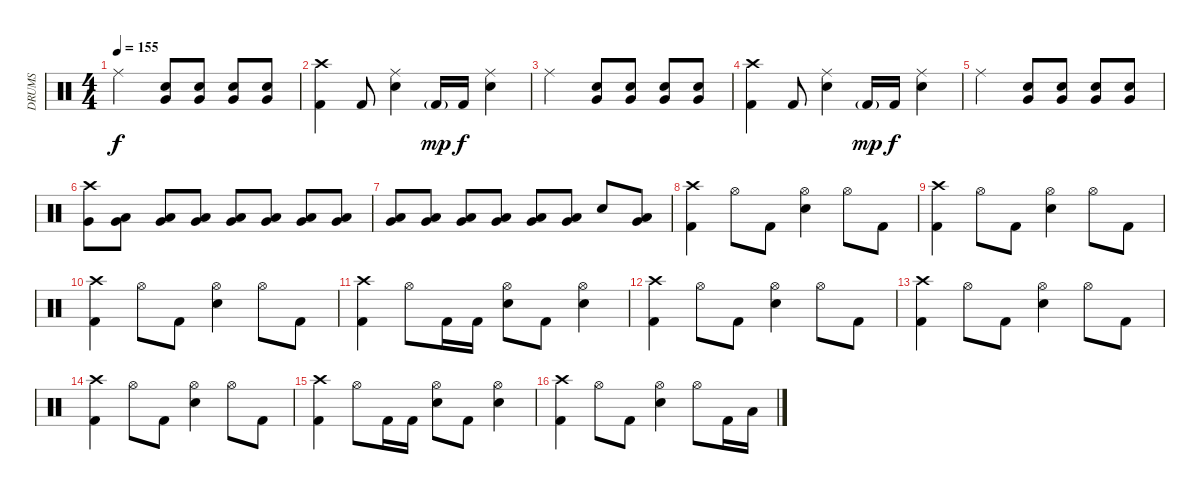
\track ("DRUMS" "DRUMS") {instrument percussion}
\staff {score}
\articulation defaults
\ts (4 4)
\tempo 155
\clef neutral
\ks c "Ride (middle)".2{dy f}
("Very Low Tom (hit)" "Electric Snare (hit)").8 ("Very Low Tom (hit)" "Electric Snare (hit)").8 ("Very Low Tom (hit)" "Electric Snare (hit)").8 ("Very Low Tom (hit)" "Electric Snare (hit)").8 |
("Crash high (hit)" "Kick (hit) 2").4 "Kick (hit) 2".8 ("Ride (middle)" "Electric Snare (hit)").4 "Kick (hit) 2"{g}.16{dy mp} "Kick (hit) 2".16{dy f} ("Ride (middle)" "Electric Snare (hit)").4 |
"Ride (middle)".2 ("Very Low Tom (hit)" "Electric Snare (hit)").8 ("Very Low Tom (hit)" "Electric Snare (hit)").8 ("Very Low Tom (hit)" "Electric Snare (hit)").8 ("Very Low Tom (hit)" "Electric Snare (hit)").8 |
("Crash high (hit)" "Kick (hit) 2").4 "Kick (hit) 2".8 ("Ride (middle)" "Electric Snare (hit)").4 "Kick (hit) 2"{g}.16{dy mp} "Kick (hit) 2".16{dy f} ("Ride (middle)" "Electric Snare (hit)").4 |
"Ride (middle)".2 ("Very Low Tom (hit)" "Electric Snare (hit)").8 ("Very Low Tom (hit)" "Electric Snare (hit)").8 ("Very Low Tom (hit)" "Electric Snare (hit)").8 ("Very Low Tom (hit)" "Electric Snare (hit)").8 |
("Crash high (hit)" "Very Low Tom (hit)").8 ("Low Tom (hit)" "Very Low Tom (hit)").8 ("Low Tom (hit)" "Very Low Tom (hit)").8 ("Low Tom (hit)" "Very Low Tom (hit)").8 ("Low Tom (hit)" "Very Low Tom (hit)").8 ("Low Tom (hit)" "Very Low Tom (hit)").8 ("Low Tom (hit)" "Very Low Tom (hit)").8 ("Low Tom (hit)" "Very Low Tom (hit)").8 |
("Low Tom (hit)" "Very Low Tom (hit)").8 ("Low Tom (hit)" "Very Low Tom (hit)").8 ("Low Tom (hit)" "Very Low Tom (hit)").8 ("Low Tom (hit)" "Very Low Tom (hit)").8 ("Low Tom (hit)" "Very Low Tom (hit)").8 ("Low Tom (hit)" "Very Low Tom (hit)").8 "Electric Snare (hit)".8 ("Low Tom (hit)" "Very Low Tom (hit)").8 |
\section ("" "")
("Crash high (hit)" "Kick (hit) 2").4 "Hi-Hat (open)".8 "Kick (hit) 2".8 ("Hi-Hat (open)" "Electric Snare (hit)").4 "Hi-Hat (open)".8 "Kick (hit) 2".8 |
("Crash high (hit)" "Kick (hit) 2").4 "Hi-Hat (open)".8 "Kick (hit) 2".8 ("Hi-Hat (open)" "Electric Snare (hit)").4 "Hi-Hat (open)".8 "Kick (hit) 2".8 |
("Crash high (hit)" "Kick (hit) 2").4 "Hi-Hat (open)".8 "Kick (hit) 2".8 ("Hi-Hat (open)" "Electric Snare (hit)").4 "Hi-Hat (open)".8 "Kick (hit) 2".8 |
("Crash high (hit)" "Kick (hit) 2").4 "Hi-Hat (open)".8 "Kick (hit) 2".16 "Kick (hit) 2".16 ("Hi-Hat (open)" "Electric Snare (hit)").8 "Kick (hit) 2".8 ("Hi-Hat (open)" "Electric Snare (hit)").4 |
("Crash high (hit)" "Kick (hit) 2").4 "Hi-Hat (open)".8 "Kick (hit) 2".8 ("Hi-Hat (open)" "Electric Snare (hit)").4 "Hi-Hat (open)".8 "Kick (hit) 2".8 |
("Crash high (hit)" "Kick (hit) 2").4 "Hi-Hat (open)".8 "Kick (hit) 2".8 ("Hi-Hat (open)" "Electric Snare (hit)").4 "Hi-Hat (open)".8 "Kick (hit) 2".8 |
("Crash high (hit)" "Kick (hit) 2").4 "Hi-Hat (open)".8 "Kick (hit) 2".8 ("Hi-Hat (open)" "Electric Snare (hit)").4 "Hi-Hat (open)".8 "Kick (hit) 2".8 |
("Crash high (hit)" "Kick (hit) 2").4 "Hi-Hat (open)".8 "Kick (hit) 2".16 "Kick (hit) 2".16 ("Hi-Hat (open)" "Electric Snare (hit)").8 "Kick (hit) 2".8 ("Hi-Hat (open)" "Electric Snare (hit)").4 |
("Crash high (hit)" "Kick (hit) 2").4 "Hi-Hat (open)".8 "Kick (hit) 2".8 ("Hi-Hat (open)" "Electric Snare (hit)").4 "Hi-Hat (open)".8 "Kick (hit) 2".16 "Low Floor Tom (hit)".16
